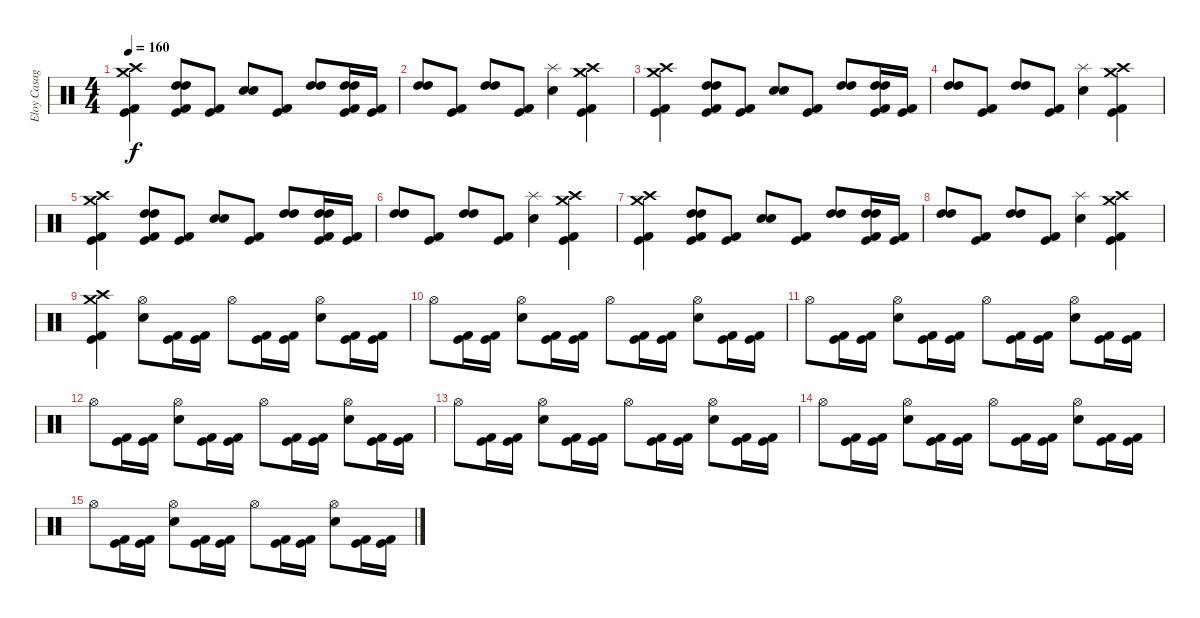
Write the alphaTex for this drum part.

\track ("Eloy Casagrande" "Eloy Casag") {instrument percussion}
\staff {score}
\articulation defaults
\ts (4 4)
\tempo 160
\clef neutral
\ks c
("Crash medium (hit)" "Crash high (hit)" "Kick (hit) 2" "Kick (hit)").4{dy f} ("High Tom (hit)" "High Tom (hit)" "Kick (hit) 2" "Kick (hit)").8 ("Kick (hit) 2" "Kick (hit)").8 ("Electric Snare (hit)" "Electric Snare (hit)").8 ("Kick (hit) 2" "Kick (hit)").8 ("High Tom (hit)" "High Tom (hit)").8 ("High Tom (hit)" "High Tom (hit)" "Kick (hit) 2" "Kick (hit)").16 ("Kick (hit) 2" "Kick (hit)").16 |
("High Tom (hit)" "High Tom (hit)").8 ("Kick (hit) 2" "Kick (hit)").8 ("High Tom (hit)" "High Tom (hit)").8 ("Kick (hit)" "Kick (hit) 2").8 ("Splash (hit)" "Electric Snare (hit)").4 ("Crash medium (hit)" "Crash high (hit)" "Kick (hit) 2" "Kick (hit)").4 |
("Crash medium (hit)" "Crash high (hit)" "Kick (hit) 2" "Kick (hit)").4 ("High Tom (hit)" "High Tom (hit)" "Kick (hit) 2" "Kick (hit)").8 ("Kick (hit) 2" "Kick (hit)").8 ("Electric Snare (hit)" "Electric Snare (hit)").8 ("Kick (hit) 2" "Kick (hit)").8 ("High Tom (hit)" "High Tom (hit)").8 ("High Tom (hit)" "High Tom (hit)" "Kick (hit) 2" "Kick (hit)").16 ("Kick (hit) 2" "Kick (hit)").16 |
("High Tom (hit)" "High Tom (hit)").8 ("Kick (hit) 2" "Kick (hit)").8 ("High Tom (hit)" "High Tom (hit)").8 ("Kick (hit)" "Kick (hit) 2").8 ("Splash (hit)" "Electric Snare (hit)").4 ("Crash medium (hit)" "Crash high (hit)" "Kick (hit) 2" "Kick (hit)").4 |
("Crash medium (hit)" "Crash high (hit)" "Kick (hit) 2" "Kick (hit)").4 ("High Tom (hit)" "High Tom (hit)" "Kick (hit) 2" "Kick (hit)").8 ("Kick (hit) 2" "Kick (hit)").8 ("Electric Snare (hit)" "Electric Snare (hit)").8 ("Kick (hit) 2" "Kick (hit)").8 ("High Tom (hit)" "High Tom (hit)").8 ("High Tom (hit)" "High Tom (hit)" "Kick (hit) 2" "Kick (hit)").16 ("Kick (hit) 2" "Kick (hit)").16 |
("High Tom (hit)" "High Tom (hit)").8 ("Kick (hit) 2" "Kick (hit)").8 ("High Tom (hit)" "High Tom (hit)").8 ("Kick (hit)" "Kick (hit) 2").8 ("Splash (hit)" "Electric Snare (hit)").4 ("Crash medium (hit)" "Crash high (hit)" "Kick (hit) 2" "Kick (hit)").4 |
("Crash medium (hit)" "Crash high (hit)" "Kick (hit) 2" "Kick (hit)").4 ("High Tom (hit)" "High Tom (hit)" "Kick (hit) 2" "Kick (hit)").8 ("Kick (hit) 2" "Kick (hit)").8 ("Electric Snare (hit)" "Electric Snare (hit)").8 ("Kick (hit) 2" "Kick (hit)").8 ("High Tom (hit)" "High Tom (hit)").8 ("High Tom (hit)" "High Tom (hit)" "Kick (hit) 2" "Kick (hit)").16 ("Kick (hit) 2" "Kick (hit)").16 |
("High Tom (hit)" "High Tom (hit)").8 ("Kick (hit) 2" "Kick (hit)").8 ("High Tom (hit)" "High Tom (hit)").8 ("Kick (hit)" "Kick (hit) 2").8 ("Splash (hit)" "Electric Snare (hit)").4 ("Crash medium (hit)" "Crash high (hit)" "Kick (hit) 2" "Kick (hit)").4 |
("Crash medium (hit)" "Crash high (hit)" "Kick (hit) 2" "Kick (hit)").4 ("Hi-Hat (open)" "Electric Snare (hit)").8 ("Kick (hit) 2" "Kick (hit)").16 ("Kick (hit) 2" "Kick (hit)").16 "Hi-Hat (open)".8 ("Kick (hit) 2" "Kick (hit)").16 ("Kick (hit) 2" "Kick (hit)").16 ("Hi-Hat (open)" "Electric Snare (hit)").8 ("Kick (hit)" "Kick (hit) 2").16 ("Kick (hit) 2" "Kick (hit)").16 |
"Hi-Hat (open)".8 ("Kick (hit) 2" "Kick (hit)").16 ("Kick (hit) 2" "Kick (hit)").16 ("Hi-Hat (open)" "Electric Snare (hit)").8 ("Kick (hit) 2" "Kick (hit)").16 ("Kick (hit) 2" "Kick (hit)").16 "Hi-Hat (open)".8 ("Kick (hit) 2" "Kick (hit)").16 ("Kick (hit) 2" "Kick (hit)").16 ("Hi-Hat (open)" "Electric Snare (hit)").8 ("Kick (hit)" "Kick (hit) 2").16 ("Kick (hit) 2" "Kick (hit)").16 |
"Hi-Hat (open)".8 ("Kick (hit) 2" "Kick (hit)").16 ("Kick (hit) 2" "Kick (hit)").16 ("Hi-Hat (open)" "Electric Snare (hit)").8 ("Kick (hit) 2" "Kick (hit)").16 ("Kick (hit) 2" "Kick (hit)").16 "Hi-Hat (open)".8 ("Kick (hit) 2" "Kick (hit)").16 ("Kick (hit) 2" "Kick (hit)").16 ("Hi-Hat (open)" "Electric Snare (hit)").8 ("Kick (hit)" "Kick (hit) 2").16 ("Kick (hit) 2" "Kick (hit)").16 |
"Hi-Hat (open)".8 ("Kick (hit) 2" "Kick (hit)").16 ("Kick (hit) 2" "Kick (hit)").16 ("Hi-Hat (open)" "Electric Snare (hit)").8 ("Kick (hit) 2" "Kick (hit)").16 ("Kick (hit) 2" "Kick (hit)").16 "Hi-Hat (open)".8 ("Kick (hit) 2" "Kick (hit)").16 ("Kick (hit) 2" "Kick (hit)").16 ("Hi-Hat (open)" "Electric Snare (hit)").8 ("Kick (hit)" "Kick (hit) 2").16 ("Kick (hit) 2" "Kick (hit)").16 |
"Hi-Hat (open)".8 ("Kick (hit) 2" "Kick (hit)").16 ("Kick (hit) 2" "Kick (hit)").16 ("Hi-Hat (open)" "Electric Snare (hit)").8 ("Kick (hit) 2" "Kick (hit)").16 ("Kick (hit) 2" "Kick (hit)").16 "Hi-Hat (open)".8 ("Kick (hit) 2" "Kick (hit)").16 ("Kick (hit) 2" "Kick (hit)").16 ("Hi-Hat (open)" "Electric Snare (hit)").8 ("Kick (hit)" "Kick (hit) 2").16 ("Kick (hit) 2" "Kick (hit)").16 |
"Hi-Hat (open)".8 ("Kick (hit) 2" "Kick (hit)").16 ("Kick (hit) 2" "Kick (hit)").16 ("Hi-Hat (open)" "Electric Snare (hit)").8 ("Kick (hit) 2" "Kick (hit)").16 ("Kick (hit) 2" "Kick (hit)").16 "Hi-Hat (open)".8 ("Kick (hit) 2" "Kick (hit)").16 ("Kick (hit) 2" "Kick (hit)").16 ("Hi-Hat (open)" "Electric Snare (hit)").8 ("Kick (hit)" "Kick (hit) 2").16 ("Kick (hit) 2" "Kick (hit)").16 |
"Hi-Hat (open)".8 ("Kick (hit) 2" "Kick (hit)").16 ("Kick (hit) 2" "Kick (hit)").16 ("Hi-Hat (open)" "Electric Snare (hit)").8 ("Kick (hit) 2" "Kick (hit)").16 ("Kick (hit) 2" "Kick (hit)").16 "Hi-Hat (open)".8 ("Kick (hit) 2" "Kick (hit)").16 ("Kick (hit) 2" "Kick (hit)").16 ("Hi-Hat (open)" "Electric Snare (hit)").8 ("Kick (hit)" "Kick (hit) 2").16 ("Kick (hit) 2" "Kick (hit)").16
